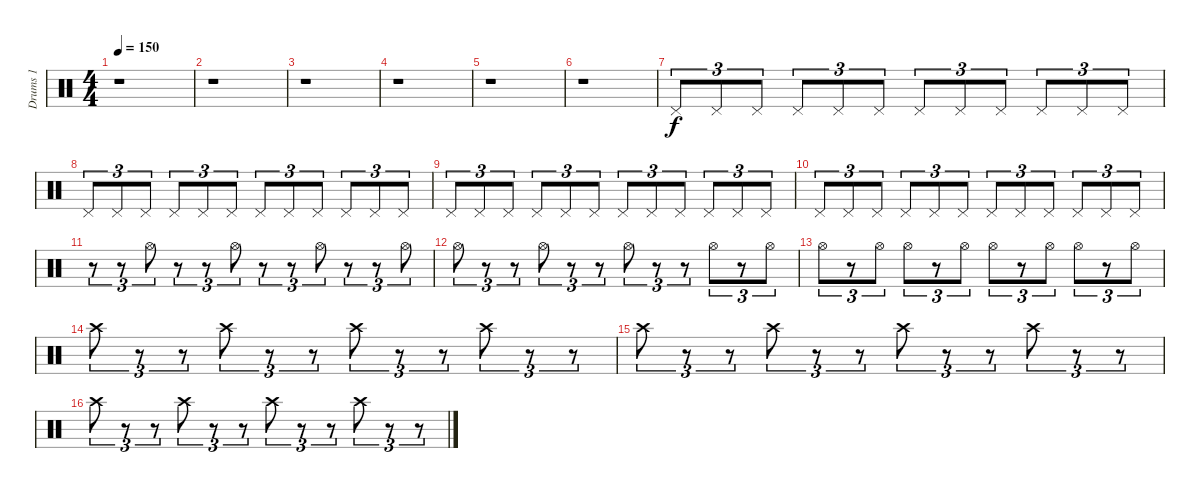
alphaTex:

\track ("Drums 1" "Drums 1") {instrument percussion}
\staff {score}
\articulation defaults
\ts (4 4)
\tempo 150
\clef neutral
\ks c
r.1{dy f} |
r.1 |
r.1 |
r.1 |
r.1 |
r.1 |
"Pedal Hi-Hat (hit)".8{tu (3 2)} "Pedal Hi-Hat (hit)".8{tu (3 2)} "Pedal Hi-Hat (hit)".8{tu (3 2)} "Pedal Hi-Hat (hit)".8{tu (3 2)} "Pedal Hi-Hat (hit)".8{tu (3 2)} "Pedal Hi-Hat (hit)".8{tu (3 2)} "Pedal Hi-Hat (hit)".8{tu (3 2)} "Pedal Hi-Hat (hit)".8{tu (3 2)} "Pedal Hi-Hat (hit)".8{tu (3 2)} "Pedal Hi-Hat (hit)".8{tu (3 2)} "Pedal Hi-Hat (hit)".8{tu (3 2)} "Pedal Hi-Hat (hit)".8{tu (3 2)} |
"Pedal Hi-Hat (hit)".8{tu (3 2)} "Pedal Hi-Hat (hit)".8{tu (3 2)} "Pedal Hi-Hat (hit)".8{tu (3 2)} "Pedal Hi-Hat (hit)".8{tu (3 2)} "Pedal Hi-Hat (hit)".8{tu (3 2)} "Pedal Hi-Hat (hit)".8{tu (3 2)} "Pedal Hi-Hat (hit)".8{tu (3 2)} "Pedal Hi-Hat (hit)".8{tu (3 2)} "Pedal Hi-Hat (hit)".8{tu (3 2)} "Pedal Hi-Hat (hit)".8{tu (3 2)} "Pedal Hi-Hat (hit)".8{tu (3 2)} "Pedal Hi-Hat (hit)".8{tu (3 2)} |
"Pedal Hi-Hat (hit)".8{tu (3 2)} "Pedal Hi-Hat (hit)".8{tu (3 2)} "Pedal Hi-Hat (hit)".8{tu (3 2)} "Pedal Hi-Hat (hit)".8{tu (3 2)} "Pedal Hi-Hat (hit)".8{tu (3 2)} "Pedal Hi-Hat (hit)".8{tu (3 2)} "Pedal Hi-Hat (hit)".8{tu (3 2)} "Pedal Hi-Hat (hit)".8{tu (3 2)} "Pedal Hi-Hat (hit)".8{tu (3 2)} "Pedal Hi-Hat (hit)".8{tu (3 2)} "Pedal Hi-Hat (hit)".8{tu (3 2)} "Pedal Hi-Hat (hit)".8{tu (3 2)} |
"Pedal Hi-Hat (hit)".8{tu (3 2)} "Pedal Hi-Hat (hit)".8{tu (3 2)} "Pedal Hi-Hat (hit)".8{tu (3 2)} "Pedal Hi-Hat (hit)".8{tu (3 2)} "Pedal Hi-Hat (hit)".8{tu (3 2)} "Pedal Hi-Hat (hit)".8{tu (3 2)} "Pedal Hi-Hat (hit)".8{tu (3 2)} "Pedal Hi-Hat (hit)".8{tu (3 2)} "Pedal Hi-Hat (hit)".8{tu (3 2)} "Pedal Hi-Hat (hit)".8{tu (3 2)} "Pedal Hi-Hat (hit)".8{tu (3 2)} "Pedal Hi-Hat (hit)".8{tu (3 2)} |
r.8{tu (3 2)} r.8{tu (3 2)} "Hi-Hat (open)".8{tu (3 2)} r.8{tu (3 2)} r.8{tu (3 2)} "Hi-Hat (open)".8{tu (3 2)} r.8{tu (3 2)} r.8{tu (3 2)} "Hi-Hat (open)".8{tu (3 2)} r.8{tu (3 2)} r.8{tu (3 2)} "Hi-Hat (open)".8{tu (3 2)} |
"Hi-Hat (open)".8{tu (3 2)} r.8{tu (3 2)} r.8{tu (3 2)} "Hi-Hat (open)".8{tu (3 2)} r.8{tu (3 2)} r.8{tu (3 2)} "Hi-Hat (open)".8{tu (3 2)} r.8{tu (3 2)} r.8{tu (3 2)} "Hi-Hat (open)".8{tu (3 2)} r.8{tu (3 2)} "Hi-Hat (open)".8{tu (3 2)} |
"Hi-Hat (open)".8{tu (3 2)} r.8{tu (3 2)} "Hi-Hat (open)".8{tu (3 2)} "Hi-Hat (open)".8{tu (3 2)} r.8{tu (3 2)} "Hi-Hat (open)".8{tu (3 2)} "Hi-Hat (open)".8{tu (3 2)} r.8{tu (3 2)} "Hi-Hat (open)".8{tu (3 2)} "Hi-Hat (open)".8{tu (3 2)} r.8{tu (3 2)} "Hi-Hat (open)".8{tu (3 2)} |
"Crash high (hit)".8{tu (3 2)} r.8{tu (3 2)} r.8{tu (3 2)} "Crash high (hit)".8{tu (3 2)} r.8{tu (3 2)} r.8{tu (3 2)} "Crash high (hit)".8{tu (3 2)} r.8{tu (3 2)} r.8{tu (3 2)} "Crash high (hit)".8{tu (3 2)} r.8{tu (3 2)} r.8{tu (3 2)} |
"Crash high (hit)".8{tu (3 2)} r.8{tu (3 2)} r.8{tu (3 2)} "Crash high (hit)".8{tu (3 2)} r.8{tu (3 2)} r.8{tu (3 2)} "Crash high (hit)".8{tu (3 2)} r.8{tu (3 2)} r.8{tu (3 2)} "Crash high (hit)".8{tu (3 2)} r.8{tu (3 2)} r.8{tu (3 2)} |
"Crash high (hit)".8{tu (3 2)} r.8{tu (3 2)} r.8{tu (3 2)} "Crash high (hit)".8{tu (3 2)} r.8{tu (3 2)} r.8{tu (3 2)} "Crash high (hit)".8{tu (3 2)} r.8{tu (3 2)} r.8{tu (3 2)} "Crash high (hit)".8{tu (3 2)} r.8{tu (3 2)} r.8{tu (3 2)}
